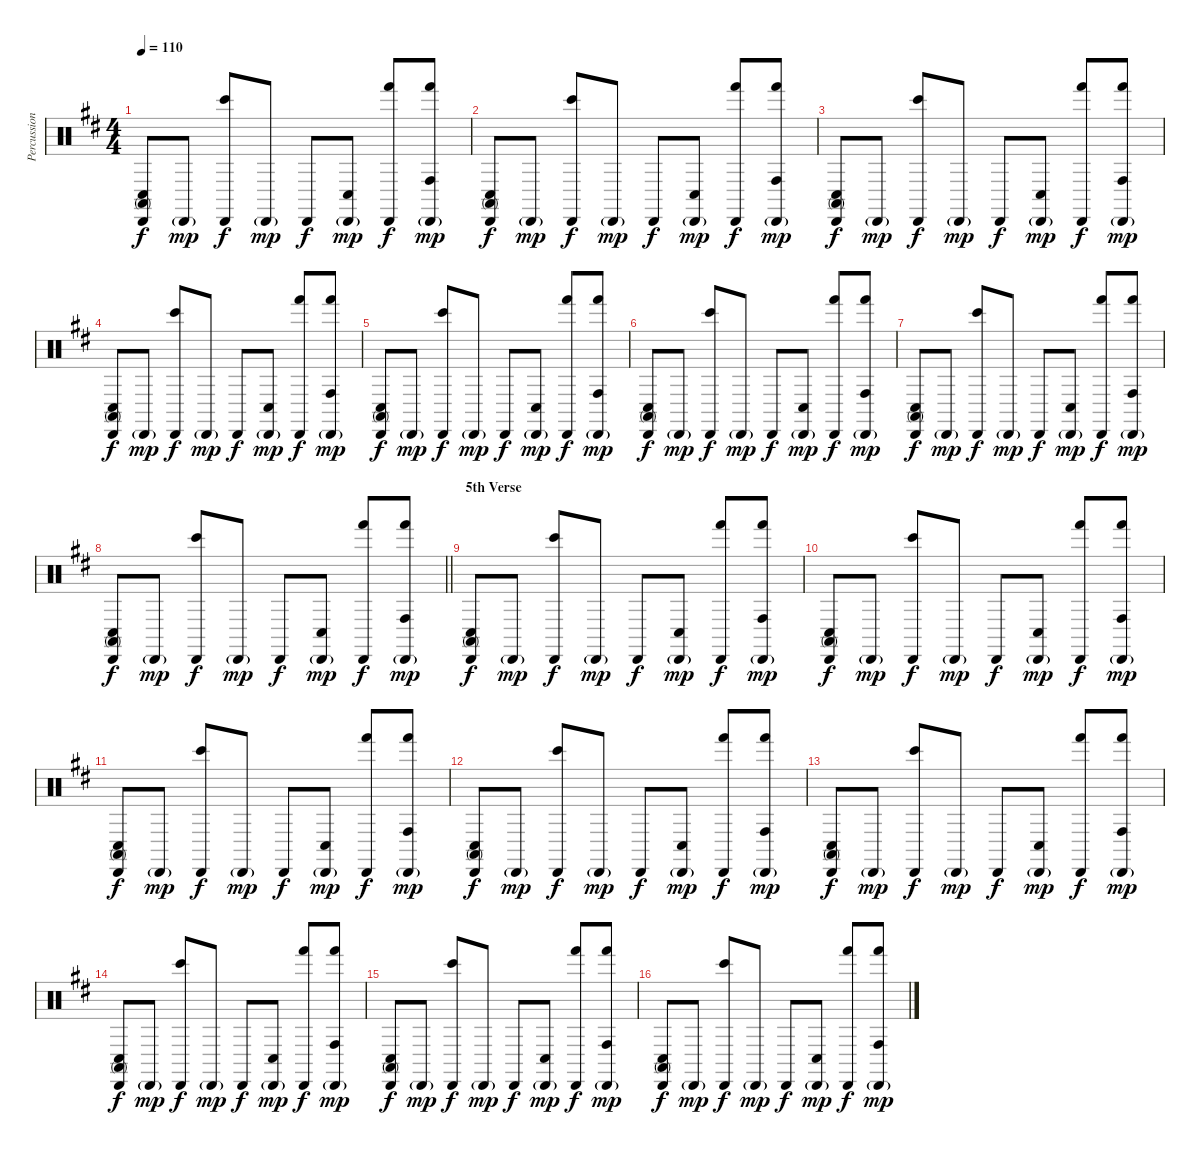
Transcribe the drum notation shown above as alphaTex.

\track ("Percussions" "Percussion") {instrument percussion}
\staff {score}
\articulation defaults
\ts (4 4)
\tempo 110
\clef neutral
\ks d
("Cabasa (hit)" "Conga high (mute)" "Conga low (hit)").8{dy f} "Cabasa (hit)"{g}.8{dy mp} ("Cabasa (hit)" "Bongo High (hit)").8{dy f} "Cabasa (hit)"{g}.8{dy mp} "Cabasa (hit)".8{dy f} ("Cabasa (hit)"{g} "Conga low (hit)").8{dy mp} ("Cabasa (hit)" "Hand (hit)").8{dy f} ("Cabasa (hit)"{g} "Hand (hit)" "Conga high (hit)").8{dy mp} |
("Cabasa (hit)" "Conga high (mute)" "Conga low (hit)").8{dy f} "Cabasa (hit)"{g}.8{dy mp} ("Cabasa (hit)" "Bongo High (hit)").8{dy f} "Cabasa (hit)"{g}.8{dy mp} "Cabasa (hit)".8{dy f} ("Cabasa (hit)"{g} "Conga low (hit)").8{dy mp} ("Cabasa (hit)" "Hand (hit)").8{dy f} ("Cabasa (hit)"{g} "Hand (hit)" "Conga high (hit)").8{dy mp} |
("Cabasa (hit)" "Conga high (mute)" "Conga low (hit)").8{dy f} "Cabasa (hit)"{g}.8{dy mp} ("Cabasa (hit)" "Bongo High (hit)").8{dy f} "Cabasa (hit)"{g}.8{dy mp} "Cabasa (hit)".8{dy f} ("Cabasa (hit)"{g} "Conga low (hit)").8{dy mp} ("Cabasa (hit)" "Hand (hit)").8{dy f} ("Cabasa (hit)"{g} "Hand (hit)" "Conga high (hit)").8{dy mp} |
("Cabasa (hit)" "Conga high (mute)" "Conga low (hit)").8{dy f} "Cabasa (hit)"{g}.8{dy mp} ("Cabasa (hit)" "Bongo High (hit)").8{dy f} "Cabasa (hit)"{g}.8{dy mp} "Cabasa (hit)".8{dy f} ("Cabasa (hit)"{g} "Conga low (hit)").8{dy mp} ("Cabasa (hit)" "Hand (hit)").8{dy f} ("Cabasa (hit)"{g} "Hand (hit)" "Conga high (hit)").8{dy mp} |
("Cabasa (hit)" "Conga high (mute)" "Conga low (hit)").8{dy f} "Cabasa (hit)"{g}.8{dy mp} ("Cabasa (hit)" "Bongo High (hit)").8{dy f} "Cabasa (hit)"{g}.8{dy mp} "Cabasa (hit)".8{dy f} ("Cabasa (hit)"{g} "Conga low (hit)").8{dy mp} ("Cabasa (hit)" "Hand (hit)").8{dy f} ("Cabasa (hit)"{g} "Hand (hit)" "Conga high (hit)").8{dy mp} |
("Cabasa (hit)" "Conga high (mute)" "Conga low (hit)").8{dy f} "Cabasa (hit)"{g}.8{dy mp} ("Cabasa (hit)" "Bongo High (hit)").8{dy f} "Cabasa (hit)"{g}.8{dy mp} "Cabasa (hit)".8{dy f} ("Cabasa (hit)"{g} "Conga low (hit)").8{dy mp} ("Cabasa (hit)" "Hand (hit)").8{dy f} ("Cabasa (hit)"{g} "Hand (hit)" "Conga high (hit)").8{dy mp} |
("Cabasa (hit)" "Conga high (mute)" "Conga low (hit)").8{dy f} "Cabasa (hit)"{g}.8{dy mp} ("Cabasa (hit)" "Bongo High (hit)").8{dy f} "Cabasa (hit)"{g}.8{dy mp} "Cabasa (hit)".8{dy f} ("Cabasa (hit)"{g} "Conga low (hit)").8{dy mp} ("Cabasa (hit)" "Hand (hit)").8{dy f} ("Cabasa (hit)"{g} "Hand (hit)" "Conga high (hit)").8{dy mp} |
\barLineRight lightlight
("Cabasa (hit)" "Conga high (mute)" "Conga low (hit)").8{dy f} "Cabasa (hit)"{g}.8{dy mp} ("Cabasa (hit)" "Bongo High (hit)").8{dy f} "Cabasa (hit)"{g}.8{dy mp} "Cabasa (hit)".8{dy f} ("Cabasa (hit)"{g} "Conga low (hit)").8{dy mp} ("Cabasa (hit)" "Hand (hit)").8{dy f} ("Cabasa (hit)"{g} "Hand (hit)" "Conga high (hit)").8{dy mp} |
\section ("" "5th Verse")
("Cabasa (hit)" "Conga high (mute)" "Conga low (hit)").8{dy f} "Cabasa (hit)"{g}.8{dy mp} ("Cabasa (hit)" "Bongo High (hit)").8{dy f} "Cabasa (hit)"{g}.8{dy mp} "Cabasa (hit)".8{dy f} ("Cabasa (hit)"{g} "Conga low (hit)").8{dy mp} ("Cabasa (hit)" "Hand (hit)").8{dy f} ("Cabasa (hit)"{g} "Hand (hit)" "Conga high (hit)").8{dy mp} |
("Cabasa (hit)" "Conga high (mute)" "Conga low (hit)").8{dy f} "Cabasa (hit)"{g}.8{dy mp} ("Cabasa (hit)" "Bongo High (hit)").8{dy f} "Cabasa (hit)"{g}.8{dy mp} "Cabasa (hit)".8{dy f} ("Cabasa (hit)"{g} "Conga low (hit)").8{dy mp} ("Cabasa (hit)" "Hand (hit)").8{dy f} ("Cabasa (hit)"{g} "Hand (hit)" "Conga high (hit)").8{dy mp} |
("Cabasa (hit)" "Conga high (mute)" "Conga low (hit)").8{dy f} "Cabasa (hit)"{g}.8{dy mp} ("Cabasa (hit)" "Bongo High (hit)").8{dy f} "Cabasa (hit)"{g}.8{dy mp} "Cabasa (hit)".8{dy f} ("Cabasa (hit)"{g} "Conga low (hit)").8{dy mp} ("Cabasa (hit)" "Hand (hit)").8{dy f} ("Cabasa (hit)"{g} "Hand (hit)" "Conga high (hit)").8{dy mp} |
("Cabasa (hit)" "Conga high (mute)" "Conga low (hit)").8{dy f} "Cabasa (hit)"{g}.8{dy mp} ("Cabasa (hit)" "Bongo High (hit)").8{dy f} "Cabasa (hit)"{g}.8{dy mp} "Cabasa (hit)".8{dy f} ("Cabasa (hit)"{g} "Conga low (hit)").8{dy mp} ("Cabasa (hit)" "Hand (hit)").8{dy f} ("Cabasa (hit)"{g} "Hand (hit)" "Conga high (hit)").8{dy mp} |
("Cabasa (hit)" "Conga high (mute)" "Conga low (hit)").8{dy f} "Cabasa (hit)"{g}.8{dy mp} ("Cabasa (hit)" "Bongo High (hit)").8{dy f} "Cabasa (hit)"{g}.8{dy mp} "Cabasa (hit)".8{dy f} ("Cabasa (hit)"{g} "Conga low (hit)").8{dy mp} ("Cabasa (hit)" "Hand (hit)").8{dy f} ("Cabasa (hit)"{g} "Hand (hit)" "Conga high (hit)").8{dy mp} |
("Cabasa (hit)" "Conga high (mute)" "Conga low (hit)").8{dy f} "Cabasa (hit)"{g}.8{dy mp} ("Cabasa (hit)" "Bongo High (hit)").8{dy f} "Cabasa (hit)"{g}.8{dy mp} "Cabasa (hit)".8{dy f} ("Cabasa (hit)"{g} "Conga low (hit)").8{dy mp} ("Cabasa (hit)" "Hand (hit)").8{dy f} ("Cabasa (hit)"{g} "Hand (hit)" "Conga high (hit)").8{dy mp} |
("Cabasa (hit)" "Conga high (mute)" "Conga low (hit)").8{dy f} "Cabasa (hit)"{g}.8{dy mp} ("Cabasa (hit)" "Bongo High (hit)").8{dy f} "Cabasa (hit)"{g}.8{dy mp} "Cabasa (hit)".8{dy f} ("Cabasa (hit)"{g} "Conga low (hit)").8{dy mp} ("Cabasa (hit)" "Hand (hit)").8{dy f} ("Cabasa (hit)"{g} "Hand (hit)" "Conga high (hit)").8{dy mp} |
("Cabasa (hit)" "Conga high (mute)" "Conga low (hit)").8{dy f} "Cabasa (hit)"{g}.8{dy mp} ("Cabasa (hit)" "Bongo High (hit)").8{dy f} "Cabasa (hit)"{g}.8{dy mp} "Cabasa (hit)".8{dy f} ("Cabasa (hit)"{g} "Conga low (hit)").8{dy mp} ("Cabasa (hit)" "Hand (hit)").8{dy f} ("Cabasa (hit)"{g} "Hand (hit)" "Conga high (hit)").8{dy mp}
